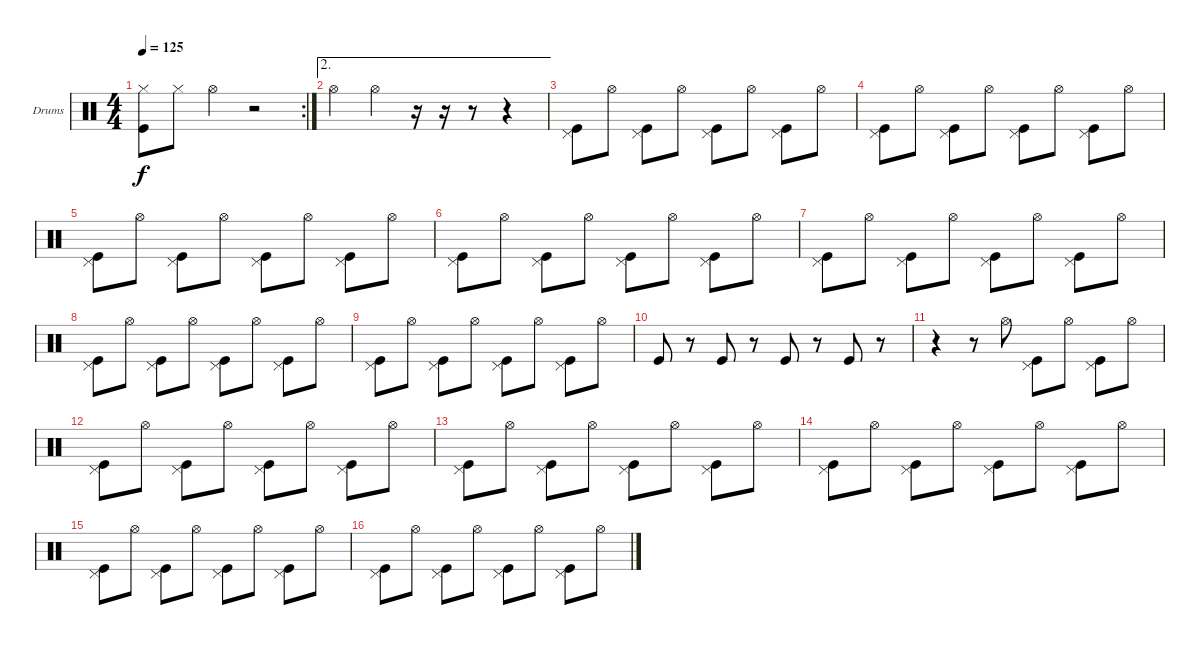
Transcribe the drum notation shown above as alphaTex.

\bracketExtendMode groupsimilarinstruments
\firstSystemTrackNameOrientation horizontal
\otherSystemsTrackNameOrientation horizontal
\track ("Drumkit" "Drums") {instrument percussion}
\staff {score}
\articulation defaults
\rc 2
\ts (4 4)
\tempo 125
\clef neutral
\ks c
("Kick (hit)" "Hi-Hat (closed)").8{dy f} "Hi-Hat (closed)".8 "Hi-Hat (open)".4 r.2 |
\ae 2 "Hi-Hat (open)".4 "Hi-Hat (open)".4
r.16 r.16 r.8 r.4 |
("Pedal Hi-Hat (hit)" "Kick (hit)").8 "Hi-Hat (open)".8 ("Pedal Hi-Hat (hit)" "Kick (hit)").8 "Hi-Hat (open)".8 ("Pedal Hi-Hat (hit)" "Kick (hit)").8 "Hi-Hat (open)".8 ("Pedal Hi-Hat (hit)" "Kick (hit)").8 "Hi-Hat (open)".8 |
("Pedal Hi-Hat (hit)" "Kick (hit)").8 "Hi-Hat (open)".8 ("Pedal Hi-Hat (hit)" "Kick (hit)").8 "Hi-Hat (open)".8 ("Pedal Hi-Hat (hit)" "Kick (hit)").8 "Hi-Hat (open)".8 ("Pedal Hi-Hat (hit)" "Kick (hit)").8 "Hi-Hat (open)".8 |
("Pedal Hi-Hat (hit)" "Kick (hit)").8 "Hi-Hat (open)".8 ("Pedal Hi-Hat (hit)" "Kick (hit)").8 "Hi-Hat (open)".8 ("Pedal Hi-Hat (hit)" "Kick (hit)").8 "Hi-Hat (open)".8 ("Pedal Hi-Hat (hit)" "Kick (hit)").8 "Hi-Hat (open)".8 |
("Pedal Hi-Hat (hit)" "Kick (hit)").8 "Hi-Hat (open)".8 ("Pedal Hi-Hat (hit)" "Kick (hit)").8 "Hi-Hat (open)".8 ("Pedal Hi-Hat (hit)" "Kick (hit)").8 "Hi-Hat (open)".8 ("Pedal Hi-Hat (hit)" "Kick (hit)").8 "Hi-Hat (open)".8 |
("Pedal Hi-Hat (hit)" "Kick (hit)").8 "Hi-Hat (open)".8 ("Pedal Hi-Hat (hit)" "Kick (hit)").8 "Hi-Hat (open)".8 ("Pedal Hi-Hat (hit)" "Kick (hit)").8 "Hi-Hat (open)".8 ("Pedal Hi-Hat (hit)" "Kick (hit)").8 "Hi-Hat (open)".8 |
("Pedal Hi-Hat (hit)" "Kick (hit)").8 "Hi-Hat (open)".8 ("Pedal Hi-Hat (hit)" "Kick (hit)").8 "Hi-Hat (open)".8 ("Pedal Hi-Hat (hit)" "Kick (hit)").8 "Hi-Hat (open)".8 ("Pedal Hi-Hat (hit)" "Kick (hit)").8 "Hi-Hat (open)".8 |
("Pedal Hi-Hat (hit)" "Kick (hit)").8 "Hi-Hat (open)".8 ("Pedal Hi-Hat (hit)" "Kick (hit)").8 "Hi-Hat (open)".8 ("Pedal Hi-Hat (hit)" "Kick (hit)").8 "Hi-Hat (open)".8 ("Pedal Hi-Hat (hit)" "Kick (hit)").8 "Hi-Hat (open)".8 |
"Kick (hit)".8 r.8 "Kick (hit)".8 r.8 "Kick (hit)".8 r.8 "Kick (hit)".8 r.8 |
r.4 r.8 "Hi-Hat (open)".8 ("Pedal Hi-Hat (hit)" "Kick (hit)").8 "Hi-Hat (open)".8 ("Pedal Hi-Hat (hit)" "Kick (hit)").8 "Hi-Hat (open)".8 |
("Pedal Hi-Hat (hit)" "Kick (hit)").8 "Hi-Hat (open)".8 ("Pedal Hi-Hat (hit)" "Kick (hit)").8 "Hi-Hat (open)".8 ("Pedal Hi-Hat (hit)" "Kick (hit)").8 "Hi-Hat (open)".8 ("Pedal Hi-Hat (hit)" "Kick (hit)").8 "Hi-Hat (open)".8 |
("Pedal Hi-Hat (hit)" "Kick (hit)").8 "Hi-Hat (open)".8 ("Pedal Hi-Hat (hit)" "Kick (hit)").8 "Hi-Hat (open)".8 ("Pedal Hi-Hat (hit)" "Kick (hit)").8 "Hi-Hat (open)".8 ("Pedal Hi-Hat (hit)" "Kick (hit)").8 "Hi-Hat (open)".8 |
("Pedal Hi-Hat (hit)" "Kick (hit)").8 "Hi-Hat (open)".8 ("Pedal Hi-Hat (hit)" "Kick (hit)").8 "Hi-Hat (open)".8 ("Pedal Hi-Hat (hit)" "Kick (hit)").8 "Hi-Hat (open)".8 ("Pedal Hi-Hat (hit)" "Kick (hit)").8 "Hi-Hat (open)".8 |
("Pedal Hi-Hat (hit)" "Kick (hit)").8 "Hi-Hat (open)".8 ("Pedal Hi-Hat (hit)" "Kick (hit)").8 "Hi-Hat (open)".8 ("Pedal Hi-Hat (hit)" "Kick (hit)").8 "Hi-Hat (open)".8 ("Pedal Hi-Hat (hit)" "Kick (hit)").8 "Hi-Hat (open)".8 |
("Pedal Hi-Hat (hit)" "Kick (hit)").8 "Hi-Hat (open)".8 ("Pedal Hi-Hat (hit)" "Kick (hit)").8 "Hi-Hat (open)".8 ("Pedal Hi-Hat (hit)" "Kick (hit)").8 "Hi-Hat (open)".8 ("Pedal Hi-Hat (hit)" "Kick (hit)").8 "Hi-Hat (open)".8
